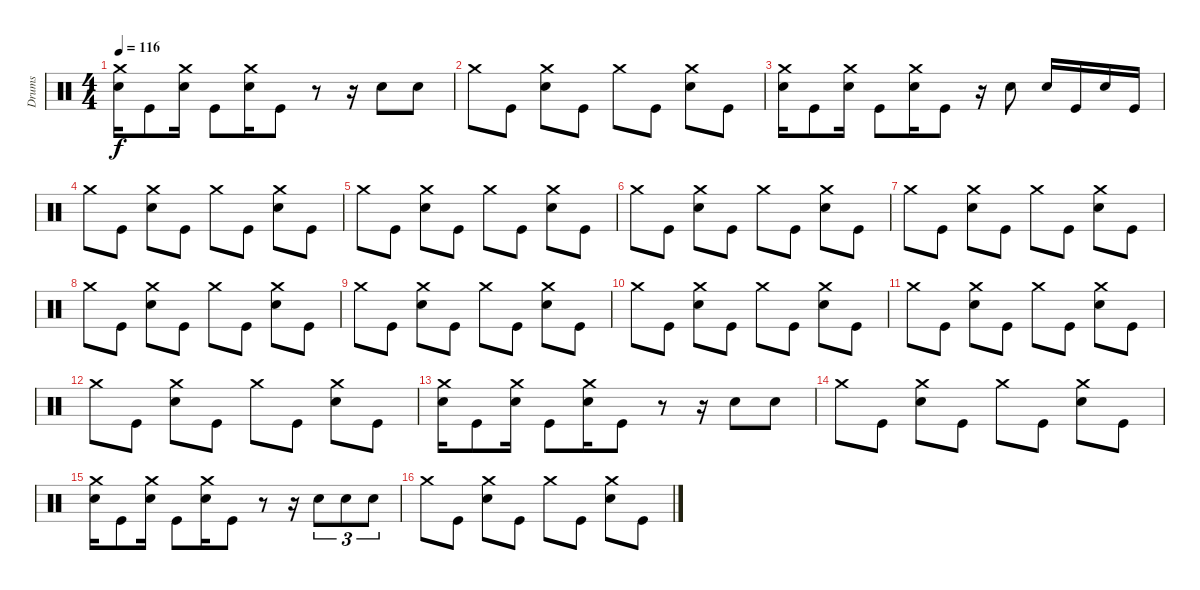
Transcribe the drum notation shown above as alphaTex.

\track ("Drums" "Drums") {instrument percussion}
\staff {score}
\articulation defaults
\ts (4 4)
\tempo 116
\clef neutral
\ks c
("Crash medium (hit)" "Snare (hit) 2").16{dy f} "Kick (hit)".8 ("Crash medium (hit)" "Snare (hit) 2").16 "Kick (hit)".8 ("Crash medium (hit)" "Snare (hit) 2").16 "Kick (hit)".8 r.8 r.16 "Snare (hit) 2".8 "Snare (hit) 2".8 |
"Crash medium (hit)".8 "Kick (hit)".8 ("Crash medium (hit)" "Snare (hit) 2").8 "Kick (hit)".8 "Crash medium (hit)".8 "Kick (hit)".8 ("Crash medium (hit)" "Snare (hit) 2").8 "Kick (hit)".8 |
("Crash medium (hit)" "Snare (hit) 2").16 "Kick (hit)".8 ("Crash medium (hit)" "Snare (hit) 2").16 "Kick (hit)".8 ("Crash medium (hit)" "Snare (hit) 2").16 "Kick (hit)".8 r.16 "Snare (hit) 2".8 "Snare (hit) 2".16 "Kick (hit)".16 "Snare (hit) 2".16 "Kick (hit)".16 |
"Crash medium (hit)".8 "Kick (hit)".8 ("Crash medium (hit)" "Snare (hit) 2").8 "Kick (hit)".8 "Crash medium (hit)".8 "Kick (hit)".8 ("Crash medium (hit)" "Snare (hit) 2").8 "Kick (hit)".8 |
"Crash medium (hit)".8 "Kick (hit)".8 ("Crash medium (hit)" "Snare (hit) 2").8 "Kick (hit)".8 "Crash medium (hit)".8 "Kick (hit)".8 ("Crash medium (hit)" "Snare (hit) 2").8 "Kick (hit)".8 |
"Crash medium (hit)".8 "Kick (hit)".8 ("Crash medium (hit)" "Snare (hit) 2").8 "Kick (hit)".8 "Crash medium (hit)".8 "Kick (hit)".8 ("Crash medium (hit)" "Snare (hit) 2").8 "Kick (hit)".8 |
"Crash medium (hit)".8 "Kick (hit)".8 ("Crash medium (hit)" "Snare (hit) 2").8 "Kick (hit)".8 "Crash medium (hit)".8 "Kick (hit)".8 ("Crash medium (hit)" "Snare (hit) 2").8 "Kick (hit)".8 |
"Crash medium (hit)".8 "Kick (hit)".8 ("Crash medium (hit)" "Snare (hit) 2").8 "Kick (hit)".8 "Crash medium (hit)".8 "Kick (hit)".8 ("Crash medium (hit)" "Snare (hit) 2").8 "Kick (hit)".8 |
"Crash medium (hit)".8 "Kick (hit)".8 ("Crash medium (hit)" "Snare (hit) 2").8 "Kick (hit)".8 "Crash medium (hit)".8 "Kick (hit)".8 ("Crash medium (hit)" "Snare (hit) 2").8 "Kick (hit)".8 |
"Crash medium (hit)".8 "Kick (hit)".8 ("Crash medium (hit)" "Snare (hit) 2").8 "Kick (hit)".8 "Crash medium (hit)".8 "Kick (hit)".8 ("Crash medium (hit)" "Snare (hit) 2").8 "Kick (hit)".8 |
"Crash medium (hit)".8 "Kick (hit)".8 ("Crash medium (hit)" "Snare (hit) 2").8 "Kick (hit)".8 "Crash medium (hit)".8 "Kick (hit)".8 ("Crash medium (hit)" "Snare (hit) 2").8 "Kick (hit)".8 |
"Crash medium (hit)".8 "Kick (hit)".8 ("Crash medium (hit)" "Snare (hit) 2").8 "Kick (hit)".8 "Crash medium (hit)".8 "Kick (hit)".8 ("Crash medium (hit)" "Snare (hit) 2").8 "Kick (hit)".8 |
("Crash medium (hit)" "Snare (hit) 2").16 "Kick (hit)".8 ("Crash medium (hit)" "Snare (hit) 2").16 "Kick (hit)".8 ("Crash medium (hit)" "Snare (hit) 2").16 "Kick (hit)".8 r.8 r.16 "Snare (hit) 2".8 "Snare (hit) 2".8 |
"Crash medium (hit)".8 "Kick (hit)".8 ("Crash medium (hit)" "Snare (hit) 2").8 "Kick (hit)".8 "Crash medium (hit)".8 "Kick (hit)".8 ("Crash medium (hit)" "Snare (hit) 2").8 "Kick (hit)".8 |
("Crash medium (hit)" "Snare (hit) 2").16 "Kick (hit)".8 ("Crash medium (hit)" "Snare (hit) 2").16 "Kick (hit)".8 ("Crash medium (hit)" "Snare (hit) 2").16 "Kick (hit)".8 r.8 r.16 "Snare (hit) 2".8{tu (3 2)} "Snare (hit) 2".8{tu (3 2)} "Snare (hit) 2".8{tu (3 2)} |
"Crash medium (hit)".8 "Kick (hit)".8 ("Crash medium (hit)" "Snare (hit) 2").8 "Kick (hit)".8 "Crash medium (hit)".8 "Kick (hit)".8 ("Crash medium (hit)" "Snare (hit) 2").8 "Kick (hit)".8
